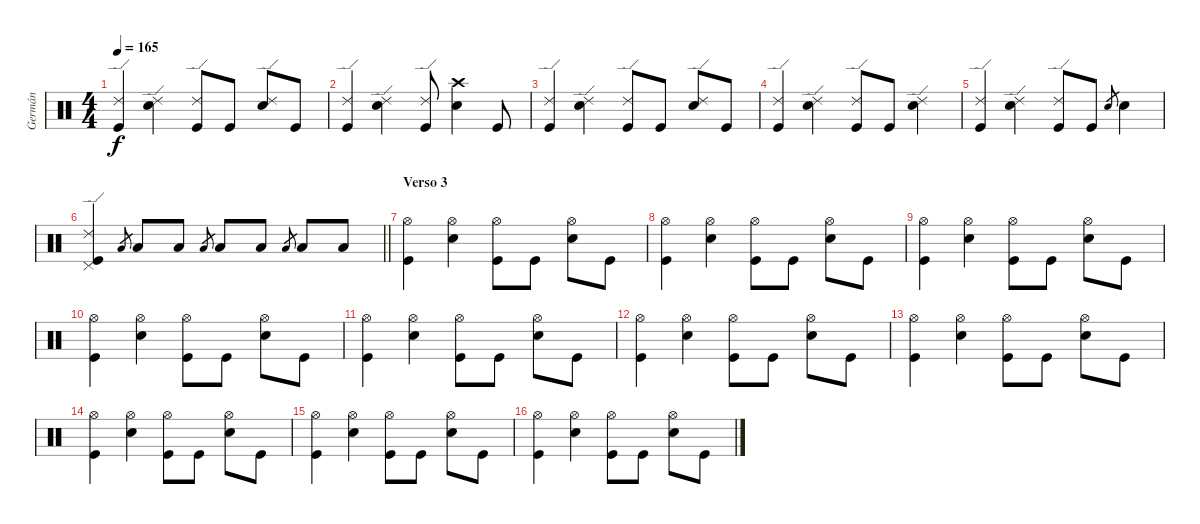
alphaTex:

\track ("Germán" "Germán") {instrument percussion}
\staff {score}
\articulation defaults
\ts (4 4)
\tempo 165
\clef neutral
\ks c
("Ride (edge) 2" "Kick (hit)").4{dy f} ("Ride (edge) 2" "Electric Snare (hit)").4 ("Ride (edge) 2" "Kick (hit)").8 "Kick (hit)".8 ("Ride (edge) 2" "Electric Snare (hit)").8 "Kick (hit)".8 |
("Ride (edge) 2" "Kick (hit)").4 ("Ride (edge) 2" "Electric Snare (hit)").4 ("Ride (edge) 2" "Kick (hit)").8 ("Crash high (hit)" "Electric Snare (hit)").4 "Kick (hit)".8 |
("Ride (edge) 2" "Kick (hit)").4 ("Ride (edge) 2" "Electric Snare (hit)").4 ("Ride (edge) 2" "Kick (hit)").8 "Kick (hit)".8 ("Ride (edge) 2" "Electric Snare (hit)").8 "Kick (hit)".8 |
("Ride (edge) 2" "Kick (hit)").4 ("Ride (edge) 2" "Electric Snare (hit)").4 ("Ride (edge) 2" "Kick (hit)").8 "Kick (hit)".8 ("Ride (edge) 2" "Electric Snare (hit)").4 |
("Ride (edge) 2" "Kick (hit)").4 ("Ride (edge) 2" "Electric Snare (hit)").4 ("Ride (edge) 2" "Kick (hit)").8 "Kick (hit)".8 "Electric Snare (hit)".8{gr} "Electric Snare (hit)".4 |
\barLineRight lightlight
("Ride (edge) 2" "Pedal Hi-Hat (hit)" "Kick (hit)").4 "Low Tom (hit)".8{gr} "Low Tom (hit)".8 "Low Tom (hit)".8 "Low Tom (hit)".8{gr} "Low Tom (hit)".8 "Low Tom (hit)".8 "Low Tom (hit)".8{gr} "Low Tom (hit)".8 "Low Tom (hit)".8 |
\section ("" "Verso 3")
("Hi-Hat (open)" "Kick (hit)").4 ("Hi-Hat (open)" "Electric Snare (hit)").4 ("Hi-Hat (open)" "Kick (hit)").8 "Kick (hit)".8 ("Hi-Hat (open)" "Electric Snare (hit)").8 "Kick (hit)".8 |
("Hi-Hat (open)" "Kick (hit)").4 ("Hi-Hat (open)" "Electric Snare (hit)").4 ("Hi-Hat (open)" "Kick (hit)").8 "Kick (hit)".8 ("Hi-Hat (open)" "Electric Snare (hit)").8 "Kick (hit)".8 |
("Hi-Hat (open)" "Kick (hit)").4 ("Hi-Hat (open)" "Electric Snare (hit)").4 ("Hi-Hat (open)" "Kick (hit)").8 "Kick (hit)".8 ("Hi-Hat (open)" "Electric Snare (hit)").8 "Kick (hit)".8 |
("Hi-Hat (open)" "Kick (hit)").4 ("Hi-Hat (open)" "Electric Snare (hit)").4 ("Hi-Hat (open)" "Kick (hit)").8 "Kick (hit)".8 ("Hi-Hat (open)" "Electric Snare (hit)").8 "Kick (hit)".8 |
("Hi-Hat (open)" "Kick (hit)").4 ("Hi-Hat (open)" "Electric Snare (hit)").4 ("Hi-Hat (open)" "Kick (hit)").8 "Kick (hit)".8 ("Hi-Hat (open)" "Electric Snare (hit)").8 "Kick (hit)".8 |
("Hi-Hat (open)" "Kick (hit)").4 ("Hi-Hat (open)" "Electric Snare (hit)").4 ("Hi-Hat (open)" "Kick (hit)").8 "Kick (hit)".8 ("Hi-Hat (open)" "Electric Snare (hit)").8 "Kick (hit)".8 |
("Hi-Hat (open)" "Kick (hit)").4 ("Hi-Hat (open)" "Electric Snare (hit)").4 ("Hi-Hat (open)" "Kick (hit)").8 "Kick (hit)".8 ("Hi-Hat (open)" "Electric Snare (hit)").8 "Kick (hit)".8 |
("Hi-Hat (open)" "Kick (hit)").4 ("Hi-Hat (open)" "Electric Snare (hit)").4 ("Hi-Hat (open)" "Kick (hit)").8 "Kick (hit)".8 ("Hi-Hat (open)" "Electric Snare (hit)").8 "Kick (hit)".8 |
("Hi-Hat (open)" "Kick (hit)").4 ("Hi-Hat (open)" "Electric Snare (hit)").4 ("Hi-Hat (open)" "Kick (hit)").8 "Kick (hit)".8 ("Hi-Hat (open)" "Electric Snare (hit)").8 "Kick (hit)".8 |
("Hi-Hat (open)" "Kick (hit)").4 ("Hi-Hat (open)" "Electric Snare (hit)").4 ("Hi-Hat (open)" "Kick (hit)").8 "Kick (hit)".8 ("Hi-Hat (open)" "Electric Snare (hit)").8 "Kick (hit)".8
